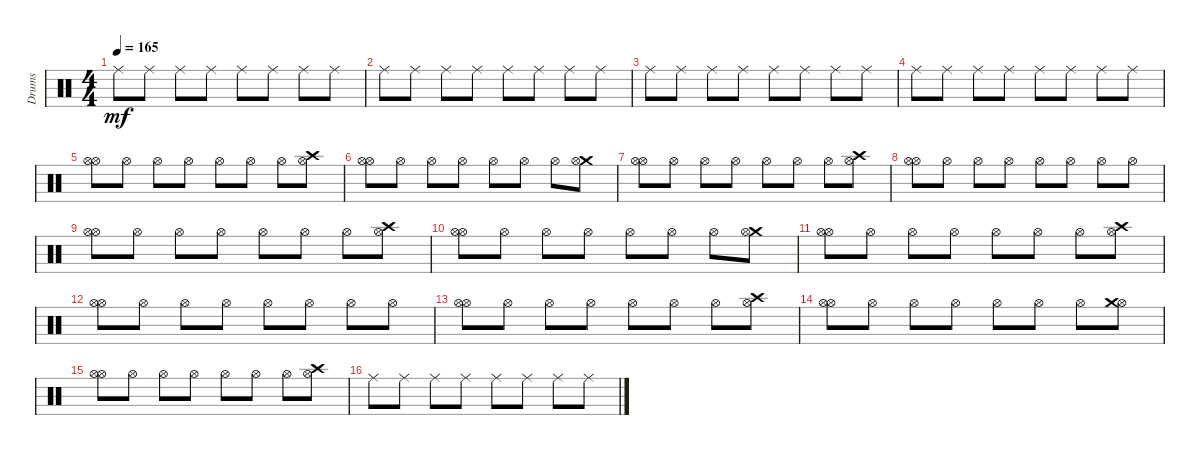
\track ("Drums" "Drums") {instrument percussion}
\staff {score}
\articulation defaults
\ts (4 4)
\tempo 165
\clef neutral
\ks c "Ride (middle)".8{dy mf} "Ride (middle)".8 "Ride (middle)".8 "Ride (middle)".8 "Ride (middle)".8 "Ride (middle)".8 "Ride (middle)".8 "Ride (middle)".8
|
"Ride (middle)".8 "Ride (middle)".8 "Ride (middle)".8 "Ride (middle)".8 "Ride (middle)".8 "Ride (middle)".8 "Ride (middle)".8 "Ride (middle)".8 |
"Ride (middle)".8 "Ride (middle)".8 "Ride (middle)".8 "Ride (middle)".8 "Ride (middle)".8 "Ride (middle)".8 "Ride (middle)".8 "Ride (middle)".8 |
"Ride (middle)".8 "Ride (middle)".8 "Ride (middle)".8 "Ride (middle)".8 "Ride (middle)".8 "Ride (middle)".8 "Ride (middle)".8 "Ride (middle)".8 |
("Hi-Hat (open)" "Hi-Hat (open)").8 "Hi-Hat (open)".8 "Hi-Hat (open)".8 "Hi-Hat (open)".8 "Hi-Hat (open)".8 "Hi-Hat (open)".8 "Hi-Hat (open)".8 ("Crash high (hit)" "Hi-Hat (open)").8 |
("Hi-Hat (open)" "Hi-Hat (open)").8 "Hi-Hat (open)".8 "Hi-Hat (open)".8 "Hi-Hat (open)".8 "Hi-Hat (open)".8 "Hi-Hat (open)".8 "Hi-Hat (open)".8 ("Crash medium (hit)" "Hi-Hat (open)").8 |
("Hi-Hat (open)" "Hi-Hat (open)").8 "Hi-Hat (open)".8 "Hi-Hat (open)".8 "Hi-Hat (open)".8 "Hi-Hat (open)".8 "Hi-Hat (open)".8 "Hi-Hat (open)".8 ("Hi-Hat (open)" "Crash high (hit)").8 |
("Hi-Hat (open)" "Hi-Hat (open)").8 "Hi-Hat (open)".8 "Hi-Hat (open)".8 "Hi-Hat (open)".8 "Hi-Hat (open)".8 "Hi-Hat (open)".8 "Hi-Hat (open)".8 "Hi-Hat (open)".8 |
("Hi-Hat (open)" "Hi-Hat (open)").8 "Hi-Hat (open)".8 "Hi-Hat (open)".8 "Hi-Hat (open)".8 "Hi-Hat (open)".8 "Hi-Hat (open)".8 "Hi-Hat (open)".8 ("Crash high (hit)" "Hi-Hat (open)").8 |
("Hi-Hat (open)" "Hi-Hat (open)").8 "Hi-Hat (open)".8 "Hi-Hat (open)".8 "Hi-Hat (open)".8 "Hi-Hat (open)".8 "Hi-Hat (open)".8 "Hi-Hat (open)".8 ("Crash medium (hit)" "Hi-Hat (open)").8 |
("Hi-Hat (open)" "Hi-Hat (open)").8 "Hi-Hat (open)".8 "Hi-Hat (open)".8 "Hi-Hat (open)".8 "Hi-Hat (open)".8 "Hi-Hat (open)".8 "Hi-Hat (open)".8 ("Crash high (hit)" "Hi-Hat (open)").8 |
("Hi-Hat (open)" "Hi-Hat (open)").8 "Hi-Hat (open)".8 "Hi-Hat (open)".8 "Hi-Hat (open)".8 "Hi-Hat (open)".8 "Hi-Hat (open)".8 "Hi-Hat (open)".8 "Hi-Hat (open)".8 |
("Hi-Hat (open)" "Hi-Hat (open)").8 "Hi-Hat (open)".8 "Hi-Hat (open)".8 "Hi-Hat (open)".8 "Hi-Hat (open)".8 "Hi-Hat (open)".8 "Hi-Hat (open)".8 ("Hi-Hat (open)" "Crash high (hit)").8 |
("Hi-Hat (open)" "Hi-Hat (open)").8 "Hi-Hat (open)".8 "Hi-Hat (open)".8 "Hi-Hat (open)".8 "Hi-Hat (open)".8 "Hi-Hat (open)".8 "Hi-Hat (open)".8 ("Hi-Hat (open)" "Crash medium (hit)").8 |
("Hi-Hat (open)" "Hi-Hat (open)").8 "Hi-Hat (open)".8 "Hi-Hat (open)".8 "Hi-Hat (open)".8 "Hi-Hat (open)".8 "Hi-Hat (open)".8 "Hi-Hat (open)".8 ("Hi-Hat (open)" "Crash high (hit)").8 |
"Ride (middle)".8 "Ride (middle)".8 "Ride (middle)".8 "Ride (middle)".8 "Ride (middle)".8 "Ride (middle)".8 "Ride (middle)".8 "Ride (middle)".8
